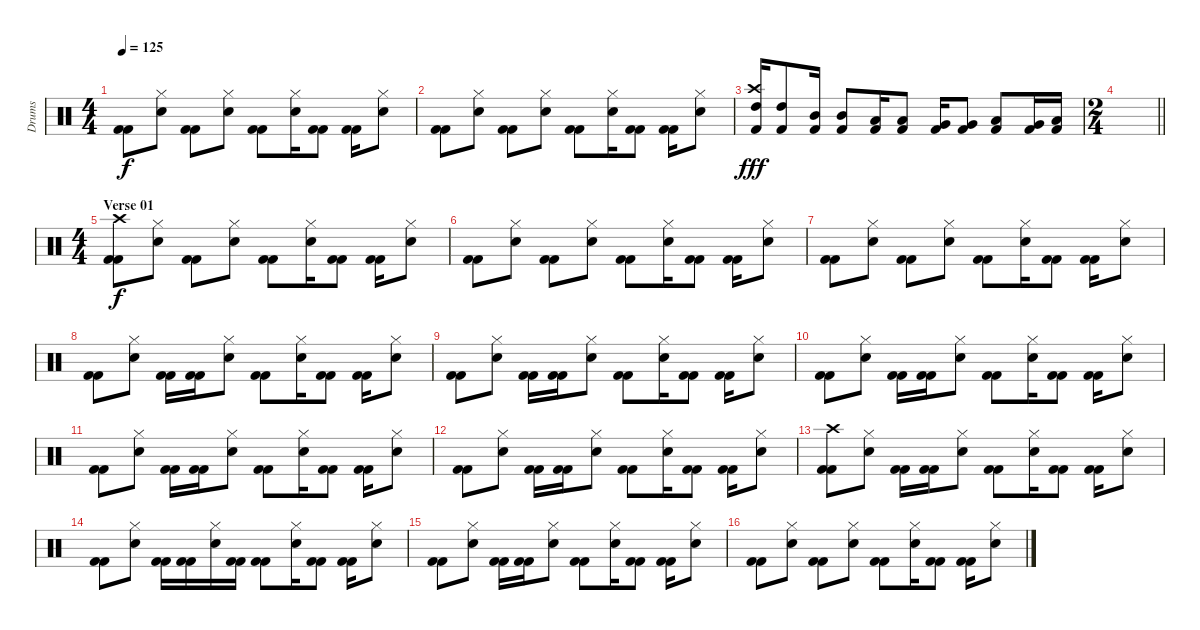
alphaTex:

\track ("Drums" "Drums") {instrument percussion}
\staff {score}
\articulation defaults
\ts (4 4)
\tempo 125
\clef neutral
\ks c
("Kick (hit) 2" "Kick (hit) 2").8{dy f} ("Hi-Hat (closed)" "Electric Snare (hit)").8 ("Kick (hit) 2" "Kick (hit) 2").8 ("Hi-Hat (closed)" "Electric Snare (hit)").8 ("Kick (hit) 2" "Kick (hit) 2").8 ("Hi-Hat (closed)" "Electric Snare (hit)").16 ("Kick (hit) 2" "Kick (hit) 2").8 ("Kick (hit) 2" "Kick (hit) 2").16 ("Hi-Hat (closed)" "Electric Snare (hit)").8 |
("Kick (hit) 2" "Kick (hit) 2").8 ("Hi-Hat (closed)" "Electric Snare (hit)").8 ("Kick (hit) 2" "Kick (hit) 2").8 ("Hi-Hat (closed)" "Electric Snare (hit)").8 ("Kick (hit) 2" "Kick (hit) 2").8 ("Hi-Hat (closed)" "Electric Snare (hit)").16 ("Kick (hit) 2" "Kick (hit) 2").8 ("Kick (hit) 2" "Kick (hit) 2").16 ("Hi-Hat (closed)" "Electric Snare (hit)").8 |
("Crash high (hit)" "High Tom (hit)" "Kick (hit) 2").16{dy fff} ("High Tom (hit)" "Kick (hit) 2").8 ("Mid Tom (hit)" "Kick (hit) 2").16 ("Mid Tom (hit)" "Kick (hit) 2").8 ("Low Tom (hit)" "Kick (hit) 2").16 ("Low Tom (hit)" "Kick (hit) 2").8 ("Very Low Tom (hit)" "Kick (hit) 2").16 ("Very Low Tom (hit)" "Kick (hit) 2").8 ("Low Floor Tom (hit)" "Kick (hit) 2").8 ("Very Low Tom (hit)" "Kick (hit) 2").16 ("Low Floor Tom (hit)" "Kick (hit) 2").16 |
\ts (2 4)
\barLineRight lightlight
|
\ts (4 4)
\section ("" "Verse 01")
("Crash high (hit)" "Kick (hit) 2" "Kick (hit) 2").8{dy f} ("Hi-Hat (closed)" "Electric Snare (hit)").8 ("Kick (hit) 2" "Kick (hit) 2").8 ("Hi-Hat (closed)" "Electric Snare (hit)").8 ("Kick (hit) 2" "Kick (hit) 2").8 ("Hi-Hat (closed)" "Electric Snare (hit)").16 ("Kick (hit) 2" "Kick (hit) 2").8 ("Kick (hit) 2" "Kick (hit) 2").16 ("Hi-Hat (closed)" "Electric Snare (hit)").8 |
("Kick (hit) 2" "Kick (hit) 2").8 ("Hi-Hat (closed)" "Electric Snare (hit)").8 ("Kick (hit) 2" "Kick (hit) 2").8 ("Hi-Hat (closed)" "Electric Snare (hit)").8 ("Kick (hit) 2" "Kick (hit) 2").8 ("Hi-Hat (closed)" "Electric Snare (hit)").16 ("Kick (hit) 2" "Kick (hit) 2").8 ("Kick (hit) 2" "Kick (hit) 2").16 ("Hi-Hat (closed)" "Electric Snare (hit)").8 |
("Kick (hit) 2" "Kick (hit) 2").8 ("Hi-Hat (closed)" "Electric Snare (hit)").8 ("Kick (hit) 2" "Kick (hit) 2").8 ("Hi-Hat (closed)" "Electric Snare (hit)").8 ("Kick (hit) 2" "Kick (hit) 2").8 ("Hi-Hat (closed)" "Electric Snare (hit)").16 ("Kick (hit) 2" "Kick (hit) 2").8 ("Kick (hit) 2" "Kick (hit) 2").16 ("Hi-Hat (closed)" "Electric Snare (hit)").8 |
("Kick (hit) 2" "Kick (hit) 2").8 ("Hi-Hat (closed)" "Electric Snare (hit)").8 ("Kick (hit) 2" "Kick (hit) 2").16 ("Kick (hit) 2" "Kick (hit) 2").16 ("Hi-Hat (closed)" "Electric Snare (hit)").8 ("Kick (hit) 2" "Kick (hit) 2").8 ("Hi-Hat (closed)" "Electric Snare (hit)").16 ("Kick (hit) 2" "Kick (hit) 2").8 ("Kick (hit) 2" "Kick (hit) 2").16 ("Hi-Hat (closed)" "Electric Snare (hit)").8 |
("Kick (hit) 2" "Kick (hit) 2").8 ("Hi-Hat (closed)" "Electric Snare (hit)").8 ("Kick (hit) 2" "Kick (hit) 2").16 ("Kick (hit) 2" "Kick (hit) 2").16 ("Hi-Hat (closed)" "Electric Snare (hit)").8 ("Kick (hit) 2" "Kick (hit) 2").8 ("Hi-Hat (closed)" "Electric Snare (hit)").16 ("Kick (hit) 2" "Kick (hit) 2").8 ("Kick (hit) 2" "Kick (hit) 2").16 ("Hi-Hat (closed)" "Electric Snare (hit)").8 |
("Kick (hit) 2" "Kick (hit) 2").8 ("Hi-Hat (closed)" "Electric Snare (hit)").8 ("Kick (hit) 2" "Kick (hit) 2").16 ("Kick (hit) 2" "Kick (hit) 2").16 ("Hi-Hat (closed)" "Electric Snare (hit)").8 ("Kick (hit) 2" "Kick (hit) 2").8 ("Hi-Hat (closed)" "Electric Snare (hit)").16 ("Kick (hit) 2" "Kick (hit) 2").8 ("Kick (hit) 2" "Kick (hit) 2").16 ("Hi-Hat (closed)" "Electric Snare (hit)").8 |
("Kick (hit) 2" "Kick (hit) 2").8 ("Hi-Hat (closed)" "Electric Snare (hit)").8 ("Kick (hit) 2" "Kick (hit) 2").16 ("Kick (hit) 2" "Kick (hit) 2").16 ("Hi-Hat (closed)" "Electric Snare (hit)").8 ("Kick (hit) 2" "Kick (hit) 2").8 ("Hi-Hat (closed)" "Electric Snare (hit)").16 ("Kick (hit) 2" "Kick (hit) 2").8 ("Kick (hit) 2" "Kick (hit) 2").16 ("Hi-Hat (closed)" "Electric Snare (hit)").8 |
("Kick (hit) 2" "Kick (hit) 2").8 ("Hi-Hat (closed)" "Electric Snare (hit)").8 ("Kick (hit) 2" "Kick (hit) 2").16 ("Kick (hit) 2" "Kick (hit) 2").16 ("Hi-Hat (closed)" "Electric Snare (hit)").8 ("Kick (hit) 2" "Kick (hit) 2").8 ("Hi-Hat (closed)" "Electric Snare (hit)").16 ("Kick (hit) 2" "Kick (hit) 2").8 ("Kick (hit) 2" "Kick (hit) 2").16 ("Hi-Hat (closed)" "Electric Snare (hit)").8 |
("Crash high (hit)" "Kick (hit) 2" "Kick (hit) 2").8 ("Hi-Hat (closed)" "Electric Snare (hit)").8 ("Kick (hit) 2" "Kick (hit) 2").16 ("Kick (hit) 2" "Kick (hit) 2").16 ("Hi-Hat (closed)" "Electric Snare (hit)").8 ("Kick (hit) 2" "Kick (hit) 2").8 ("Hi-Hat (closed)" "Electric Snare (hit)").16 ("Kick (hit) 2" "Kick (hit) 2").8 ("Kick (hit) 2" "Kick (hit) 2").16 ("Hi-Hat (closed)" "Electric Snare (hit)").8 |
("Kick (hit) 2" "Kick (hit) 2").8 ("Hi-Hat (closed)" "Electric Snare (hit)").8 ("Kick (hit) 2" "Kick (hit) 2").16 ("Kick (hit) 2" "Kick (hit) 2").16 ("Hi-Hat (closed)" "Electric Snare (hit)").16 ("Kick (hit) 2" "Kick (hit) 2").16 ("Kick (hit) 2" "Kick (hit) 2").8 ("Hi-Hat (closed)" "Electric Snare (hit)").16 ("Kick (hit) 2" "Kick (hit) 2").8 ("Kick (hit) 2" "Kick (hit) 2").16 ("Hi-Hat (closed)" "Electric Snare (hit)").8 |
("Kick (hit) 2" "Kick (hit) 2").8 ("Hi-Hat (closed)" "Electric Snare (hit)").8 ("Kick (hit) 2" "Kick (hit) 2").16 ("Kick (hit) 2" "Kick (hit) 2").16 ("Hi-Hat (closed)" "Electric Snare (hit)").8 ("Kick (hit) 2" "Kick (hit) 2").8 ("Hi-Hat (closed)" "Electric Snare (hit)").16 ("Kick (hit) 2" "Kick (hit) 2").8 ("Kick (hit) 2" "Kick (hit) 2").16 ("Hi-Hat (closed)" "Electric Snare (hit)").8 |
("Kick (hit) 2" "Kick (hit) 2").8 ("Hi-Hat (closed)" "Electric Snare (hit)").8 ("Kick (hit) 2" "Kick (hit) 2").8 ("Hi-Hat (closed)" "Electric Snare (hit)").8 ("Kick (hit) 2" "Kick (hit) 2").8 ("Hi-Hat (closed)" "Electric Snare (hit)").16 ("Kick (hit) 2" "Kick (hit) 2").8 ("Kick (hit) 2" "Kick (hit) 2").16 ("Hi-Hat (closed)" "Electric Snare (hit)").8
